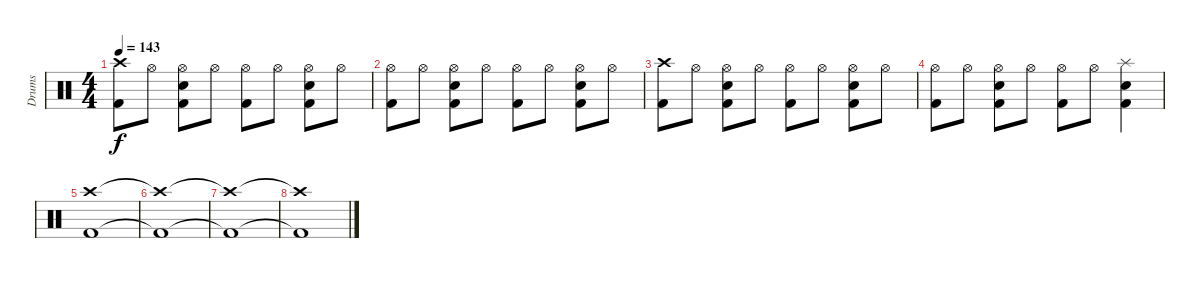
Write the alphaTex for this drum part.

\track ("Drums" "Drums") {instrument percussion}
\staff {score}
\articulation defaults
\ts (4 4)
\tempo 143
\clef neutral
\ks c
("Crash high (hit)" "Kick (hit) 2").8{dy f} "Hi-Hat (open)".8 ("Hi-Hat (open)" "Electric Snare (hit)" "Kick (hit) 2").8 "Hi-Hat (open)".8 ("Hi-Hat (open)" "Kick (hit) 2").8 "Hi-Hat (open)".8 ("Hi-Hat (open)" "Electric Snare (hit)" "Kick (hit) 2").8 "Hi-Hat (open)".8 |
("Hi-Hat (open)" "Kick (hit) 2").8 "Hi-Hat (open)".8 ("Hi-Hat (open)" "Electric Snare (hit)" "Kick (hit) 2").8 "Hi-Hat (open)".8 ("Hi-Hat (open)" "Kick (hit) 2").8 "Hi-Hat (open)".8 ("Hi-Hat (open)" "Electric Snare (hit)" "Kick (hit) 2").8 "Hi-Hat (open)".8 |
("Crash high (hit)" "Kick (hit) 2").8 "Hi-Hat (open)".8 ("Hi-Hat (open)" "Electric Snare (hit)" "Kick (hit) 2").8 "Hi-Hat (open)".8 ("Hi-Hat (open)" "Kick (hit) 2").8 "Hi-Hat (open)".8 ("Hi-Hat (open)" "Electric Snare (hit)" "Kick (hit) 2").8 "Hi-Hat (open)".8 |
("Hi-Hat (open)" "Kick (hit) 2").8 "Hi-Hat (open)".8 ("Hi-Hat (open)" "Electric Snare (hit)" "Kick (hit) 2").8 "Hi-Hat (open)".8 ("Hi-Hat (open)" "Kick (hit) 2").8 "Hi-Hat (open)".8 ("Splash (hit)" "Electric Snare (hit)" "Kick (hit) 2").4 |
("Crash high (hit)" "Kick (hit) 2").1 |
("Crash high (hit)"{t} "Kick (hit) 2"{t}).1 |
("Crash high (hit)"{t} "Kick (hit) 2"{t}).1 |
("Crash high (hit)"{t} "Kick (hit) 2"{t}).1
